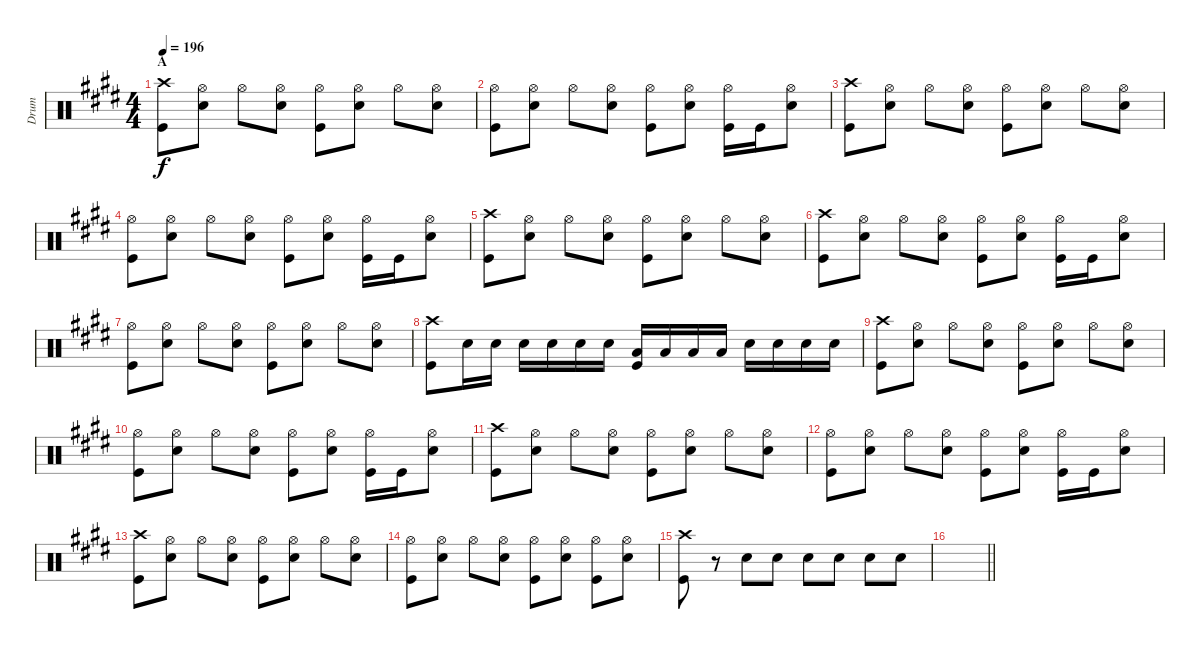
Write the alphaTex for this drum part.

\track ("Drum" "Drum") {instrument percussion}
\staff {score}
\articulation defaults
\ts (4 4)
\section ("" "A")
\tempo 196
\clef neutral
\ks e
("Crash high (hit)" "Kick (hit)").8{dy f} ("Hi-Hat (open)" "Snare (hit) 2").8 "Hi-Hat (open)".8 ("Hi-Hat (open)" "Snare (hit) 2").8 ("Hi-Hat (open)" "Kick (hit)").8 ("Hi-Hat (open)" "Snare (hit) 2").8 "Hi-Hat (open)".8 ("Hi-Hat (open)" "Snare (hit) 2").8 |
("Hi-Hat (open)" "Kick (hit)").8 ("Hi-Hat (open)" "Snare (hit) 2").8 "Hi-Hat (open)".8 ("Hi-Hat (open)" "Snare (hit) 2").8 ("Hi-Hat (open)" "Kick (hit)").8 ("Hi-Hat (open)" "Snare (hit) 2").8 ("Hi-Hat (open)" "Kick (hit)").16 "Kick (hit)".16 ("Hi-Hat (open)" "Snare (hit) 2").8 |
("Crash high (hit)" "Kick (hit)").8 ("Hi-Hat (open)" "Snare (hit) 2").8 "Hi-Hat (open)".8 ("Hi-Hat (open)" "Snare (hit) 2").8 ("Hi-Hat (open)" "Kick (hit)").8 ("Hi-Hat (open)" "Snare (hit) 2").8 "Hi-Hat (open)".8 ("Hi-Hat (open)" "Snare (hit) 2").8 |
("Hi-Hat (open)" "Kick (hit)").8 ("Hi-Hat (open)" "Snare (hit) 2").8 "Hi-Hat (open)".8 ("Hi-Hat (open)" "Snare (hit) 2").8 ("Hi-Hat (open)" "Kick (hit)").8 ("Hi-Hat (open)" "Snare (hit) 2").8 ("Hi-Hat (open)" "Kick (hit)").16 "Kick (hit)".16 ("Hi-Hat (open)" "Snare (hit) 2").8 |
("Crash high (hit)" "Kick (hit)").8 ("Hi-Hat (open)" "Snare (hit) 2").8 "Hi-Hat (open)".8 ("Hi-Hat (open)" "Snare (hit) 2").8 ("Hi-Hat (open)" "Kick (hit)").8 ("Hi-Hat (open)" "Snare (hit) 2").8 "Hi-Hat (open)".8 ("Hi-Hat (open)" "Snare (hit) 2").8 |
("Crash high (hit)" "Kick (hit)").8 ("Hi-Hat (open)" "Snare (hit) 2").8 "Hi-Hat (open)".8 ("Hi-Hat (open)" "Snare (hit) 2").8 ("Hi-Hat (open)" "Kick (hit)").8 ("Hi-Hat (open)" "Snare (hit) 2").8 ("Hi-Hat (open)" "Kick (hit)").16 "Kick (hit)".16 ("Hi-Hat (open)" "Snare (hit) 2").8 |
("Hi-Hat (open)" "Kick (hit)").8 ("Hi-Hat (open)" "Snare (hit) 2").8 "Hi-Hat (open)".8 ("Hi-Hat (open)" "Snare (hit) 2").8 ("Hi-Hat (open)" "Kick (hit)").8 ("Hi-Hat (open)" "Snare (hit) 2").8 "Hi-Hat (open)".8 ("Hi-Hat (open)" "Snare (hit) 2").8 |
("Crash high (hit)" "Kick (hit)").8 "Snare (hit) 2".16 "Snare (hit) 2".16 "Snare (hit) 2".16 "Snare (hit) 2".16 "Snare (hit) 2".16 "Snare (hit) 2".16 ("Low Tom (hit)" "Kick (hit)").16 "Low Tom (hit)".16 "Low Tom (hit)".16 "Low Tom (hit)".16 "Snare (hit) 2".16 "Snare (hit) 2".16 "Snare (hit) 2".16 "Snare (hit) 2".16 |
("Crash high (hit)" "Kick (hit)").8 ("Hi-Hat (open)" "Snare (hit) 2").8 "Hi-Hat (open)".8 ("Hi-Hat (open)" "Snare (hit) 2").8 ("Hi-Hat (open)" "Kick (hit)").8 ("Hi-Hat (open)" "Snare (hit) 2").8 "Hi-Hat (open)".8 ("Hi-Hat (open)" "Snare (hit) 2").8 |
("Hi-Hat (open)" "Kick (hit)").8 ("Hi-Hat (open)" "Snare (hit) 2").8 "Hi-Hat (open)".8 ("Hi-Hat (open)" "Snare (hit) 2").8 ("Hi-Hat (open)" "Kick (hit)").8 ("Hi-Hat (open)" "Snare (hit) 2").8 ("Hi-Hat (open)" "Kick (hit)").16 "Kick (hit)".16 ("Hi-Hat (open)" "Snare (hit) 2").8 |
("Crash high (hit)" "Kick (hit)").8 ("Hi-Hat (open)" "Snare (hit) 2").8 "Hi-Hat (open)".8 ("Hi-Hat (open)" "Snare (hit) 2").8 ("Hi-Hat (open)" "Kick (hit)").8 ("Hi-Hat (open)" "Snare (hit) 2").8 "Hi-Hat (open)".8 ("Hi-Hat (open)" "Snare (hit) 2").8 |
("Hi-Hat (open)" "Kick (hit)").8 ("Hi-Hat (open)" "Snare (hit) 2").8 "Hi-Hat (open)".8 ("Hi-Hat (open)" "Snare (hit) 2").8 ("Hi-Hat (open)" "Kick (hit)").8 ("Hi-Hat (open)" "Snare (hit) 2").8 ("Hi-Hat (open)" "Kick (hit)").16 "Kick (hit)".16 ("Hi-Hat (open)" "Snare (hit) 2").8 |
("Crash high (hit)" "Kick (hit)").8 ("Hi-Hat (open)" "Snare (hit) 2").8 "Hi-Hat (open)".8 ("Hi-Hat (open)" "Snare (hit) 2").8 ("Hi-Hat (open)" "Kick (hit)").8 ("Hi-Hat (open)" "Snare (hit) 2").8 "Hi-Hat (open)".8 ("Hi-Hat (open)" "Snare (hit) 2").8 |
("Hi-Hat (open)" "Kick (hit)").8 ("Hi-Hat (open)" "Snare (hit) 2").8 "Hi-Hat (open)".8 ("Hi-Hat (open)" "Snare (hit) 2").8 ("Hi-Hat (open)" "Kick (hit)").8 ("Hi-Hat (open)" "Snare (hit) 2").8 ("Hi-Hat (open)" "Kick (hit)").8 ("Hi-Hat (open)" "Snare (hit) 2").8 |
("Crash high (hit)" "Kick (hit)").8 r.8 "Snare (hit) 2".8 "Snare (hit) 2".8 "Snare (hit) 2".8 "Snare (hit) 2".8 "Snare (hit) 2".8 "Snare (hit) 2".8 |
\barLineRight lightlight
